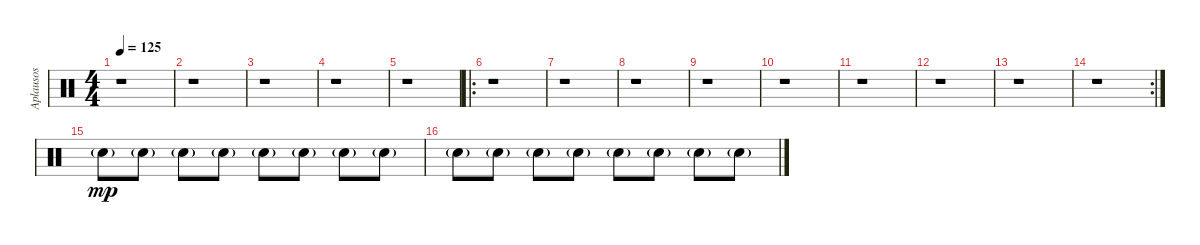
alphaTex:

\track ("Aplausos" "Aplausos") {instrument percussion}
\staff {score}
\articulation defaults
\ts (4 4)
\tempo 125
\clef neutral
\ks c
r.1{dy mp} |
r.1 |
r.1 |
r.1 |
r.1 |
\ro
r.1 |
r.1 |
r.1 |
r.1 |
r.1 |
r.1 |
r.1 |
r.1 |
\rc 2
r.1 |
"Hand Clap (hit)"{g}.8 "Hand Clap (hit)"{g}.8 "Hand Clap (hit)"{g}.8 "Hand Clap (hit)"{g}.8 "Hand Clap (hit)"{g}.8 "Hand Clap (hit)"{g}.8 "Hand Clap (hit)"{g}.8 "Hand Clap (hit)"{g}.8 |
"Hand Clap (hit)"{g}.8 "Hand Clap (hit)"{g}.8 "Hand Clap (hit)"{g}.8 "Hand Clap (hit)"{g}.8 "Hand Clap (hit)"{g}.8 "Hand Clap (hit)"{g}.8 "Hand Clap (hit)"{g}.8 "Hand Clap (hit)"{g}.8
